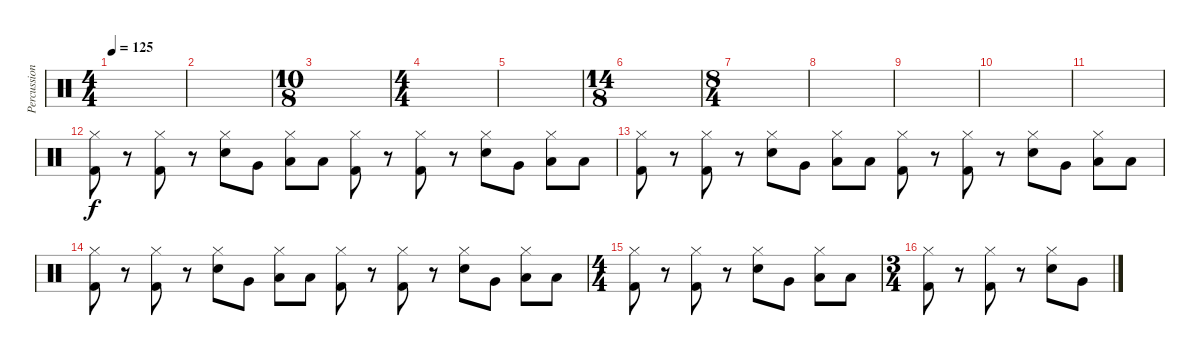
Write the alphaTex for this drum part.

\track ("Percussion" "Percussion") {instrument percussion}
\staff {score}
\articulation defaults
\ts (4 4)
\tempo 125
\clef neutral
\ks c
|
|
\ts (10 8)
|
\ts (4 4)
|
|
\ts (14 8)
|
\ts (8 4)
|
|
|
|
|
("Hi-Hat (closed)" "Kick (hit) 2").8{volume 16} r.8 ("Hi-Hat (closed)" "Kick (hit) 2").8 r.8 ("Hi-Hat (closed)" "Snare (hit) 2").8 "Very Low Tom (hit)".8 ("Hi-Hat (closed)" "Low Floor Tom (hit)").8 "Low Floor Tom (hit)".8 ("Hi-Hat (closed)" "Kick (hit) 2").8 r.8 ("Hi-Hat (closed)" "Kick (hit) 2").8 r.8 ("Hi-Hat (closed)" "Snare (hit) 2").8 "Very Low Tom (hit)".8 ("Hi-Hat (closed)" "Low Floor Tom (hit)").8 "Low Floor Tom (hit)".8 |
("Hi-Hat (closed)" "Kick (hit) 2").8 r.8 ("Hi-Hat (closed)" "Kick (hit) 2").8 r.8 ("Hi-Hat (closed)" "Snare (hit) 2").8 "Very Low Tom (hit)".8 ("Hi-Hat (closed)" "Low Floor Tom (hit)").8 "Low Floor Tom (hit)".8 ("Hi-Hat (closed)" "Kick (hit) 2").8 r.8 ("Hi-Hat (closed)" "Kick (hit) 2").8 r.8 ("Hi-Hat (closed)" "Snare (hit) 2").8 "Very Low Tom (hit)".8 ("Hi-Hat (closed)" "Low Floor Tom (hit)").8 "Low Floor Tom (hit)".8 |
("Hi-Hat (closed)" "Kick (hit) 2").8 r.8 ("Hi-Hat (closed)" "Kick (hit) 2").8 r.8 ("Hi-Hat (closed)" "Snare (hit) 2").8 "Very Low Tom (hit)".8 ("Hi-Hat (closed)" "Low Floor Tom (hit)").8 "Low Floor Tom (hit)".8 ("Hi-Hat (closed)" "Kick (hit) 2").8 r.8 ("Hi-Hat (closed)" "Kick (hit) 2").8 r.8 ("Hi-Hat (closed)" "Snare (hit) 2").8 "Very Low Tom (hit)".8 ("Hi-Hat (closed)" "Low Floor Tom (hit)").8 "Low Floor Tom (hit)".8 |
\ts (4 4)
("Hi-Hat (closed)" "Kick (hit) 2").8 r.8 ("Hi-Hat (closed)" "Kick (hit) 2").8 r.8 ("Hi-Hat (closed)" "Snare (hit) 2").8 "Very Low Tom (hit)".8 ("Hi-Hat (closed)" "Low Floor Tom (hit)").8 "Low Floor Tom (hit)".8 |
\ts (3 4)
("Hi-Hat (closed)" "Kick (hit) 2").8 r.8 ("Hi-Hat (closed)" "Kick (hit) 2").8 r.8 ("Hi-Hat (closed)" "Snare (hit) 2").8 "Very Low Tom (hit)".8
